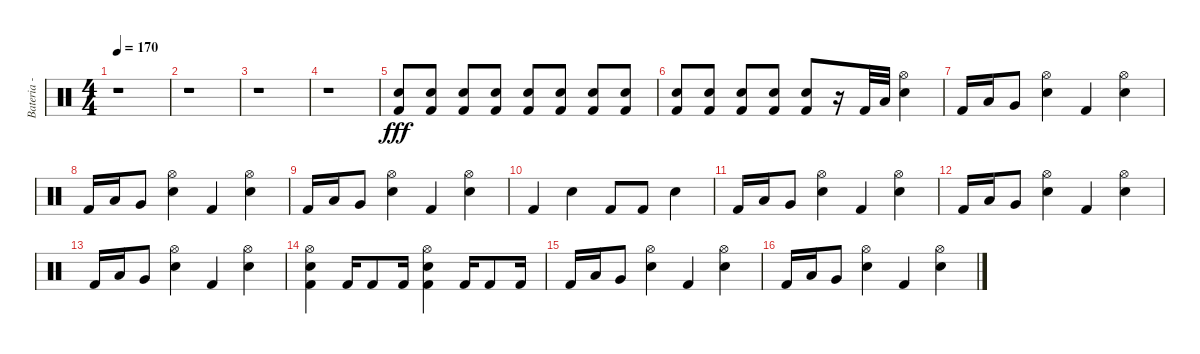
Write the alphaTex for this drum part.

\track ("Bateria - Larzon" "Bateria - ") {instrument percussion}
\staff {score}
\articulation defaults
\ts (4 4)
\tempo 170
\clef neutral
\ks c
r.1{dy fff} |
r.1 |
r.1 |
r.1 |
("Snare (hit) 2" "Kick (hit) 2").8 ("Snare (hit) 2" "Kick (hit) 2").8 ("Snare (hit) 2" "Kick (hit) 2").8 ("Snare (hit) 2" "Kick (hit) 2").8 ("Snare (hit) 2" "Kick (hit) 2").8 ("Snare (hit) 2" "Kick (hit) 2").8 ("Snare (hit) 2" "Kick (hit) 2").8 ("Snare (hit) 2" "Kick (hit) 2").8 |
("Snare (hit) 2" "Kick (hit) 2").8 ("Snare (hit) 2" "Kick (hit) 2").8 ("Snare (hit) 2" "Kick (hit) 2").8 ("Snare (hit) 2" "Kick (hit) 2").8 ("Snare (hit) 2" "Kick (hit) 2").8 r.16 "Kick (hit) 2".32 "Low Floor Tom (hit)".32 ("Hi-Hat (open)" "Snare (hit) 2").4 |
"Kick (hit) 2".16 "Low Floor Tom (hit)".16 "Very Low Tom (hit)".8 ("Hi-Hat (open)" "Snare (hit) 2").4 "Kick (hit) 2".4 ("Hi-Hat (open)" "Snare (hit) 2").4 |
"Kick (hit) 2".16 "Low Floor Tom (hit)".16 "Very Low Tom (hit)".8 ("Hi-Hat (open)" "Snare (hit) 2").4 "Kick (hit) 2".4 ("Hi-Hat (open)" "Snare (hit) 2").4 |
"Kick (hit) 2".16 "Low Floor Tom (hit)".16 "Very Low Tom (hit)".8 ("Hi-Hat (open)" "Snare (hit) 2").4 "Kick (hit) 2".4 ("Hi-Hat (open)" "Snare (hit) 2").4 |
"Kick (hit) 2".4 "Snare (hit) 2".4 "Kick (hit) 2".8 "Kick (hit) 2".8 "Snare (hit) 2".4 |
"Kick (hit) 2".16 "Low Floor Tom (hit)".16 "Very Low Tom (hit)".8 ("Hi-Hat (open)" "Snare (hit) 2").4 "Kick (hit) 2".4 ("Hi-Hat (open)" "Snare (hit) 2").4 |
"Kick (hit) 2".16 "Low Floor Tom (hit)".16 "Very Low Tom (hit)".8 ("Hi-Hat (open)" "Snare (hit) 2").4 "Kick (hit) 2".4 ("Hi-Hat (open)" "Snare (hit) 2").4 |
"Kick (hit) 2".16 "Low Floor Tom (hit)".16 "Very Low Tom (hit)".8 ("Hi-Hat (open)" "Snare (hit) 2").4 "Kick (hit) 2".4 ("Hi-Hat (open)" "Snare (hit) 2").4 |
("Hi-Hat (open)" "Snare (hit) 2" "Kick (hit) 2").4 "Kick (hit) 2".16 "Kick (hit) 2".8 "Kick (hit) 2".16 ("Hi-Hat (open)" "Snare (hit) 2" "Kick (hit) 2").4 "Kick (hit) 2".16 "Kick (hit) 2".8 "Kick (hit) 2".16 |
"Kick (hit) 2".16 "Low Floor Tom (hit)".16 "Very Low Tom (hit)".8 ("Hi-Hat (open)" "Snare (hit) 2").4 "Kick (hit) 2".4 ("Hi-Hat (open)" "Snare (hit) 2").4 |
"Kick (hit) 2".16 "Low Floor Tom (hit)".16 "Very Low Tom (hit)".8 ("Hi-Hat (open)" "Snare (hit) 2").4 "Kick (hit) 2".4 ("Hi-Hat (open)" "Snare (hit) 2").4
